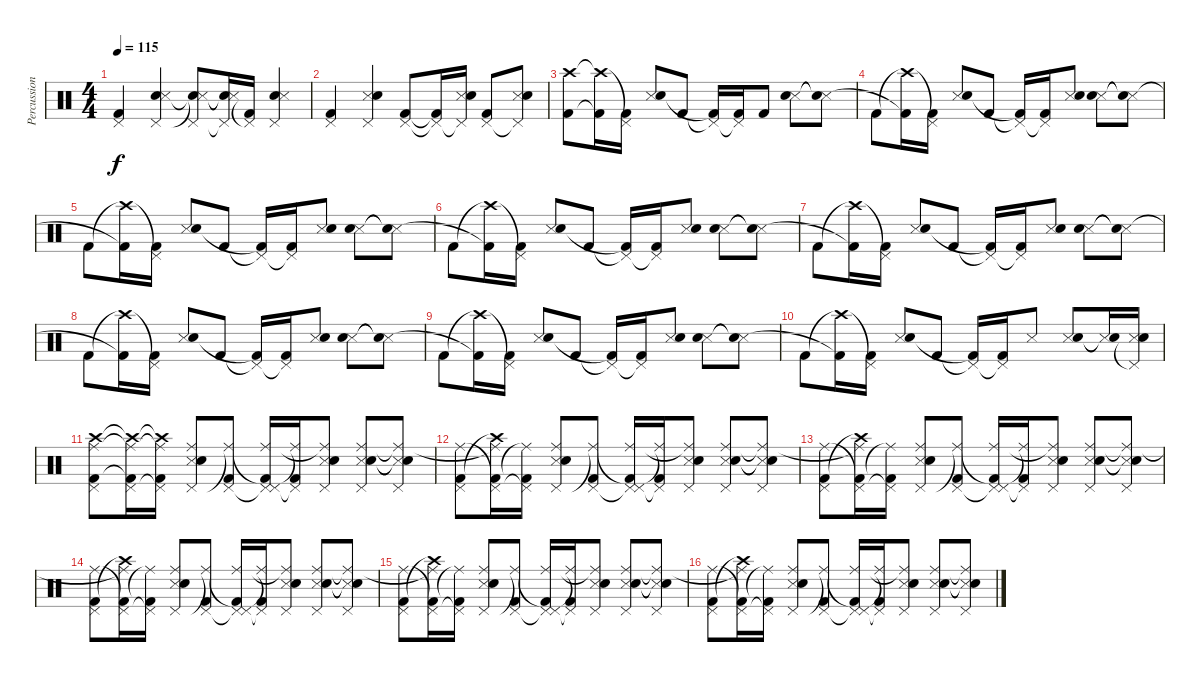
\track ("Percussioni" "Percussion") {instrument percussion}
\staff {score}
\articulation defaults
\ts (4 4)
\tempo 115
\clef neutral
\ks c
("Kick (hit) 2" "Pedal Hi-Hat (hit)").4{dy f} ("Electric Snare (hit)" "Pedal Hi-Hat (hit)" "Snare (side stick) 3").4 ("Pedal Hi-Hat (hit)" "Electric Snare (hit)"{t} "Snare (side stick) 3"{t}).8 ("Pedal Hi-Hat (hit)"{t} "Electric Snare (hit)"{t} "Snare (side stick) 3"{t}).16 ("Kick (hit) 2" "Pedal Hi-Hat (hit)"{t}).16 ("Electric Snare (hit)" "Pedal Hi-Hat (hit)" "Snare (side stick) 3").4 |
("Kick (hit) 2" "Pedal Hi-Hat (hit)").4 ("Snare (side stick) 3" "Pedal Hi-Hat (hit)" "Electric Snare (hit)").4 ("Kick (hit) 2" "Pedal Hi-Hat (hit)").8 ("Kick (hit) 2"{t} "Pedal Hi-Hat (hit)"{t}).16 ("Snare (side stick) 3" "Pedal Hi-Hat (hit)"{t} "Electric Snare (hit)").16 ("Kick (hit) 2" "Pedal Hi-Hat (hit)").8 ("Snare (side stick) 3" "Pedal Hi-Hat (hit)"{t} "Electric Snare (hit)").8 |
("Crash high (hit)" "Kick (hit) 2").8 ("Crash high (hit)"{t} "Kick (hit) 2"{t}).16 ("Pedal Hi-Hat (hit)"{t} "Kick (hit) 2").16 ("Snare (side stick) 3" "Electric Snare (hit)").8 "Kick (hit) 2".8 ("Pedal Hi-Hat (hit)"{t} "Kick (hit) 2"{t}).16 ("Pedal Hi-Hat (hit)"{t} "Kick (hit) 2").16 "Kick (hit) 2".8 ("Snare (side stick) 3" "Electric Snare (hit)").8 ("Snare (side stick) 3"{t} "Electric Snare (hit)"{t}).8 |
"Kick (hit) 2".8 ("Crash high (hit)"{t} "Kick (hit) 2"{t}).16 ("Pedal Hi-Hat (hit)"{t} "Kick (hit) 2").16 ("Snare (side stick) 3" "Electric Snare (hit)").8 "Kick (hit) 2".8 ("Pedal Hi-Hat (hit)"{t} "Kick (hit) 2"{t}).16 ("Pedal Hi-Hat (hit)"{t} "Kick (hit) 2").16 ("Snare (side stick) 3" "Electric Snare (hit)").8 ("Snare (side stick) 3" "Electric Snare (hit)").8 ("Snare (side stick) 3"{t} "Electric Snare (hit)"{t}).8 |
"Kick (hit) 2".8 ("Crash high (hit)"{t} "Kick (hit) 2"{t}).16 ("Pedal Hi-Hat (hit)"{t} "Kick (hit) 2").16 ("Snare (side stick) 3" "Electric Snare (hit)").8 "Kick (hit) 2".8 ("Pedal Hi-Hat (hit)"{t} "Kick (hit) 2"{t}).16 ("Pedal Hi-Hat (hit)"{t} "Kick (hit) 2").16 ("Snare (side stick) 3" "Electric Snare (hit)").8 ("Snare (side stick) 3" "Electric Snare (hit)").8 ("Snare (side stick) 3"{t} "Electric Snare (hit)"{t}).8 |
"Kick (hit) 2".8 ("Crash high (hit)"{t} "Kick (hit) 2"{t}).16 ("Pedal Hi-Hat (hit)"{t} "Kick (hit) 2").16 ("Snare (side stick) 3" "Electric Snare (hit)").8 "Kick (hit) 2".8 ("Pedal Hi-Hat (hit)"{t} "Kick (hit) 2"{t}).16 ("Pedal Hi-Hat (hit)"{t} "Kick (hit) 2").16 ("Snare (side stick) 3" "Electric Snare (hit)").8 ("Snare (side stick) 3" "Electric Snare (hit)").8 ("Snare (side stick) 3"{t} "Electric Snare (hit)"{t}).8 |
"Kick (hit) 2".8 ("Crash high (hit)"{t} "Kick (hit) 2"{t}).16 ("Pedal Hi-Hat (hit)"{t} "Kick (hit) 2").16 ("Snare (side stick) 3" "Electric Snare (hit)").8 "Kick (hit) 2".8 ("Pedal Hi-Hat (hit)"{t} "Kick (hit) 2"{t}).16 ("Pedal Hi-Hat (hit)"{t} "Kick (hit) 2").16 ("Snare (side stick) 3" "Electric Snare (hit)").8 ("Snare (side stick) 3" "Electric Snare (hit)").8 ("Snare (side stick) 3"{t} "Electric Snare (hit)"{t}).8 |
"Kick (hit) 2".8 ("Crash high (hit)"{t} "Kick (hit) 2"{t}).16 ("Pedal Hi-Hat (hit)"{t} "Kick (hit) 2").16 ("Snare (side stick) 3" "Electric Snare (hit)").8 "Kick (hit) 2".8 ("Pedal Hi-Hat (hit)"{t} "Kick (hit) 2"{t}).16 ("Pedal Hi-Hat (hit)"{t} "Kick (hit) 2").16 ("Snare (side stick) 3" "Electric Snare (hit)").8 ("Snare (side stick) 3" "Electric Snare (hit)").8 ("Snare (side stick) 3"{t} "Electric Snare (hit)"{t}).8 |
"Kick (hit) 2".8 ("Crash high (hit)"{t} "Kick (hit) 2"{t}).16 ("Pedal Hi-Hat (hit)"{t} "Kick (hit) 2").16 ("Snare (side stick) 3" "Electric Snare (hit)").8 "Kick (hit) 2".8 ("Pedal Hi-Hat (hit)"{t} "Kick (hit) 2"{t}).16 ("Pedal Hi-Hat (hit)"{t} "Kick (hit) 2").16 ("Snare (side stick) 3" "Electric Snare (hit)").8 ("Snare (side stick) 3" "Electric Snare (hit)").8 ("Snare (side stick) 3"{t} "Electric Snare (hit)"{t}).8 |
"Kick (hit) 2".8 ("Crash high (hit)"{t} "Kick (hit) 2"{t}).16 ("Pedal Hi-Hat (hit)"{t} "Kick (hit) 2").16 ("Snare (side stick) 3" "Electric Snare (hit)").8 "Kick (hit) 2".8 ("Pedal Hi-Hat (hit)"{t} "Kick (hit) 2"{t}).16 ("Pedal Hi-Hat (hit)"{t} "Kick (hit) 2").16 "Snare (side stick) 3".8 ("Snare (side stick) 3" "Electric Snare (hit)").8 ("Snare (side stick) 3"{t} "Electric Snare (hit)"{t}).16 ("Pedal Hi-Hat (hit)"{t} "Snare (side stick) 3" "Electric Snare (hit)").16 |
("Pedal Hi-Hat (hit)" "Crash high (hit)" "Kick (hit) 2" "Ride (middle)").8 ("Pedal Hi-Hat (hit)" "Crash high (hit)"{t} "Kick (hit) 2"{t} "Ride (middle)"{t}).16 ("Pedal Hi-Hat (hit)"{t} "Crash high (hit)"{t} "Kick (hit) 2" "Ride (middle)"{t}).16 ("Snare (side stick) 3" "Electric Snare (hit)" "Pedal Hi-Hat (hit)" "Ride (middle)").8 ("Pedal Hi-Hat (hit)" "Kick (hit) 2" "Ride (middle)"{t}).8 ("Pedal Hi-Hat (hit)"{t} "Pedal Hi-Hat (hit)" "Kick (hit) 2"{t} "Ride (middle)").16 ("Pedal Hi-Hat (hit)"{t} "Kick (hit) 2" "Ride (middle)"{t}).16 ("Snare (side stick) 3" "Pedal Hi-Hat (hit)" "Electric Snare (hit)" "Ride (middle)"{t}).8 ("Snare (side stick) 3" "Electric Snare (hit)" "Pedal Hi-Hat (hit)" "Ride (middle)").8 ("Snare (side stick) 3"{t} "Electric Snare (hit)"{t} "Pedal Hi-Hat (hit)" "Ride (middle)"{t}).8 |
("Pedal Hi-Hat (hit)" "Kick (hit) 2" "Ride (middle)").8 ("Pedal Hi-Hat (hit)" "Crash high (hit)"{t} "Kick (hit) 2"{t} "Ride (middle)"{t}).16 ("Pedal Hi-Hat (hit)"{t} "Kick (hit) 2" "Ride (middle)"{t}).16 ("Snare (side stick) 3" "Electric Snare (hit)" "Pedal Hi-Hat (hit)" "Ride (middle)").8 ("Pedal Hi-Hat (hit)" "Kick (hit) 2" "Ride (middle)"{t}).8 ("Pedal Hi-Hat (hit)"{t} "Pedal Hi-Hat (hit)" "Kick (hit) 2"{t} "Ride (middle)").16 ("Pedal Hi-Hat (hit)"{t} "Kick (hit) 2" "Ride (middle)"{t}).16 ("Snare (side stick) 3" "Pedal Hi-Hat (hit)" "Electric Snare (hit)" "Ride (middle)"{t}).8 ("Snare (side stick) 3" "Electric Snare (hit)" "Pedal Hi-Hat (hit)" "Ride (middle)").8 ("Snare (side stick) 3"{t} "Electric Snare (hit)"{t} "Pedal Hi-Hat (hit)" "Ride (middle)"{t}).8 |
("Pedal Hi-Hat (hit)" "Kick (hit) 2" "Ride (middle)").8 ("Pedal Hi-Hat (hit)" "Crash high (hit)"{t} "Kick (hit) 2"{t} "Ride (middle)"{t}).16 ("Pedal Hi-Hat (hit)"{t} "Kick (hit) 2" "Ride (middle)"{t}).16 ("Snare (side stick) 3" "Electric Snare (hit)" "Pedal Hi-Hat (hit)" "Ride (middle)").8 ("Pedal Hi-Hat (hit)" "Kick (hit) 2" "Ride (middle)"{t}).8 ("Pedal Hi-Hat (hit)"{t} "Pedal Hi-Hat (hit)" "Kick (hit) 2"{t} "Ride (middle)").16 ("Pedal Hi-Hat (hit)"{t} "Kick (hit) 2" "Ride (middle)"{t}).16 ("Snare (side stick) 3" "Pedal Hi-Hat (hit)" "Electric Snare (hit)" "Ride (middle)"{t}).8 ("Snare (side stick) 3" "Electric Snare (hit)" "Pedal Hi-Hat (hit)" "Ride (middle)").8 ("Snare (side stick) 3"{t} "Electric Snare (hit)"{t} "Pedal Hi-Hat (hit)" "Ride (middle)"{t}).8 |
("Pedal Hi-Hat (hit)" "Kick (hit) 2" "Ride (middle)").8 ("Pedal Hi-Hat (hit)" "Crash high (hit)"{t} "Kick (hit) 2"{t} "Ride (middle)"{t}).16 ("Pedal Hi-Hat (hit)"{t} "Kick (hit) 2" "Ride (middle)"{t}).16 ("Snare (side stick) 3" "Electric Snare (hit)" "Pedal Hi-Hat (hit)" "Ride (middle)").8 ("Pedal Hi-Hat (hit)" "Kick (hit) 2" "Ride (middle)"{t}).8 ("Pedal Hi-Hat (hit)"{t} "Pedal Hi-Hat (hit)" "Kick (hit) 2"{t} "Ride (middle)").16 ("Pedal Hi-Hat (hit)"{t} "Kick (hit) 2" "Ride (middle)"{t}).16 ("Snare (side stick) 3" "Pedal Hi-Hat (hit)" "Electric Snare (hit)" "Ride (middle)"{t}).8 ("Snare (side stick) 3" "Electric Snare (hit)" "Pedal Hi-Hat (hit)" "Ride (middle)").8 ("Snare (side stick) 3"{t} "Electric Snare (hit)"{t} "Pedal Hi-Hat (hit)" "Ride (middle)"{t}).8 |
("Pedal Hi-Hat (hit)" "Kick (hit) 2" "Ride (middle)").8 ("Pedal Hi-Hat (hit)" "Crash high (hit)"{t} "Kick (hit) 2"{t} "Ride (middle)"{t}).16 ("Pedal Hi-Hat (hit)"{t} "Kick (hit) 2" "Ride (middle)"{t}).16 ("Snare (side stick) 3" "Electric Snare (hit)" "Pedal Hi-Hat (hit)" "Ride (middle)").8 ("Pedal Hi-Hat (hit)" "Kick (hit) 2" "Ride (middle)"{t}).8 ("Pedal Hi-Hat (hit)"{t} "Pedal Hi-Hat (hit)" "Kick (hit) 2"{t} "Ride (middle)").16 ("Pedal Hi-Hat (hit)"{t} "Kick (hit) 2" "Ride (middle)"{t}).16 ("Snare (side stick) 3" "Pedal Hi-Hat (hit)" "Electric Snare (hit)" "Ride (middle)"{t}).8 ("Snare (side stick) 3" "Electric Snare (hit)" "Pedal Hi-Hat (hit)" "Ride (middle)").8 ("Snare (side stick) 3"{t} "Electric Snare (hit)"{t} "Pedal Hi-Hat (hit)" "Ride (middle)"{t}).8 |
("Pedal Hi-Hat (hit)" "Kick (hit) 2" "Ride (middle)").8 ("Pedal Hi-Hat (hit)" "Crash high (hit)"{t} "Kick (hit) 2"{t} "Ride (middle)"{t}).16 ("Pedal Hi-Hat (hit)"{t} "Kick (hit) 2" "Ride (middle)"{t}).16 ("Snare (side stick) 3" "Electric Snare (hit)" "Pedal Hi-Hat (hit)" "Ride (middle)").8 ("Pedal Hi-Hat (hit)" "Kick (hit) 2" "Ride (middle)"{t}).8 ("Pedal Hi-Hat (hit)"{t} "Pedal Hi-Hat (hit)" "Kick (hit) 2"{t} "Ride (middle)").16 ("Pedal Hi-Hat (hit)"{t} "Kick (hit) 2" "Ride (middle)"{t}).16 ("Snare (side stick) 3" "Pedal Hi-Hat (hit)" "Electric Snare (hit)" "Ride (middle)"{t}).8 ("Snare (side stick) 3" "Electric Snare (hit)" "Pedal Hi-Hat (hit)" "Ride (middle)").8 ("Snare (side stick) 3"{t} "Electric Snare (hit)"{t} "Pedal Hi-Hat (hit)" "Ride (middle)"{t}).8
